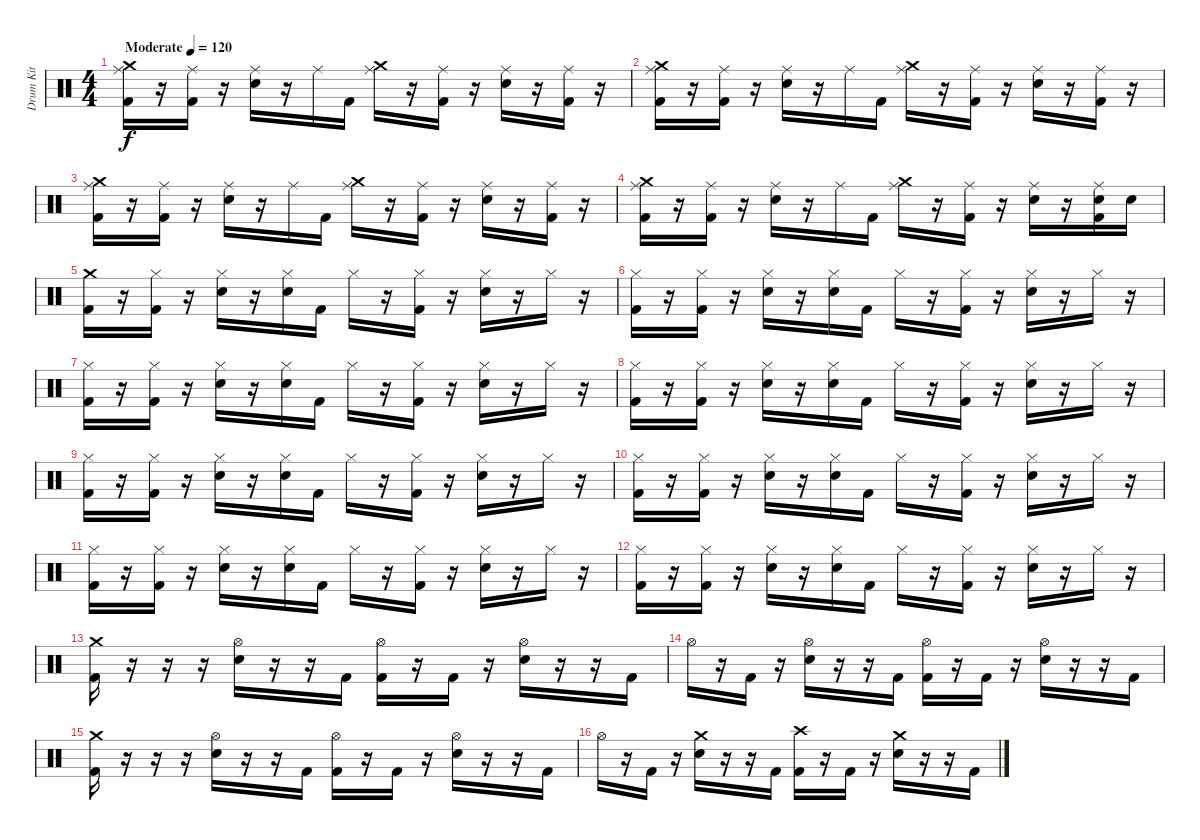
\track ("Drum Kit" "Drum Kit") {instrument percussion}
\staff {score}
\articulation defaults
\ts (4 4)
\tempo (120 "Moderate")
\clef neutral
\ks c
("Crash medium (hit)" "Ride (middle)" "Kick (hit) 2").16{dy f} r.16 ("Ride (middle)" "Kick (hit) 2").16 r.16 ("Ride (middle)" "Snare (hit) 2").16 r.16 "Ride (middle)".16 "Kick (hit) 2".16 ("Crash medium (hit)" "Ride (middle)").16 r.16 ("Ride (middle)" "Kick (hit) 2").16 r.16 ("Ride (middle)" "Snare (hit) 2").16 r.16 ("Ride (middle)" "Kick (hit) 2").16 r.16 |
("Crash medium (hit)" "Ride (middle)" "Kick (hit) 2").16 r.16 ("Ride (middle)" "Kick (hit) 2").16 r.16 ("Ride (middle)" "Snare (hit) 2").16 r.16 "Ride (middle)".16 "Kick (hit) 2".16 ("Crash medium (hit)" "Ride (middle)").16 r.16 ("Ride (middle)" "Kick (hit) 2").16 r.16 ("Ride (middle)" "Snare (hit) 2").16 r.16 ("Ride (middle)" "Kick (hit) 2").16 r.16 |
("Crash medium (hit)" "Ride (middle)" "Kick (hit) 2").16 r.16 ("Ride (middle)" "Kick (hit) 2").16 r.16 ("Ride (middle)" "Snare (hit) 2").16 r.16 "Ride (middle)".16 "Kick (hit) 2".16 ("Crash medium (hit)" "Ride (middle)").16 r.16 ("Ride (middle)" "Kick (hit) 2").16 r.16 ("Ride (middle)" "Snare (hit) 2").16 r.16 ("Ride (middle)" "Kick (hit) 2").16 r.16 |
("Crash medium (hit)" "Ride (middle)" "Kick (hit) 2").16 r.16 ("Ride (middle)" "Kick (hit) 2").16 r.16 ("Ride (middle)" "Snare (hit) 2").16 r.16 "Ride (middle)".16 "Kick (hit) 2".16 ("Crash medium (hit)" "Ride (middle)").16 r.16 ("Ride (middle)" "Kick (hit) 2").16 r.16 ("Ride (middle)" "Snare (hit) 2").16 r.16 ("Ride (middle)" "Snare (hit) 2" "Kick (hit) 2").16 "Snare (hit) 2".16 |
("Crash medium (hit)" "Kick (hit) 2").16 r.16 ("Hi-Hat (closed)" "Kick (hit) 2").16 r.16 ("Hi-Hat (closed)" "Snare (hit) 2").16 r.16 ("Hi-Hat (closed)" "Snare (hit) 2").16 "Kick (hit) 2".16 "Hi-Hat (closed)".16 r.16 ("Hi-Hat (closed)" "Kick (hit) 2").16 r.16 ("Hi-Hat (closed)" "Snare (hit) 2").16 r.16 "Hi-Hat (closed)".16 r.16 |
("Hi-Hat (closed)" "Kick (hit) 2").16 r.16 ("Hi-Hat (closed)" "Kick (hit) 2").16 r.16 ("Hi-Hat (closed)" "Snare (hit) 2").16 r.16 ("Hi-Hat (closed)" "Snare (hit) 2").16 "Kick (hit) 2".16 "Hi-Hat (closed)".16 r.16 ("Hi-Hat (closed)" "Kick (hit) 2").16 r.16 ("Hi-Hat (closed)" "Snare (hit) 2").16 r.16 "Hi-Hat (closed)".16 r.16 |
("Hi-Hat (closed)" "Kick (hit) 2").16 r.16 ("Hi-Hat (closed)" "Kick (hit) 2").16 r.16 ("Hi-Hat (closed)" "Snare (hit) 2").16 r.16 ("Hi-Hat (closed)" "Snare (hit) 2").16 "Kick (hit) 2".16 "Hi-Hat (closed)".16 r.16 ("Hi-Hat (closed)" "Kick (hit) 2").16 r.16 ("Hi-Hat (closed)" "Snare (hit) 2").16 r.16 "Hi-Hat (closed)".16 r.16 |
("Hi-Hat (closed)" "Kick (hit) 2").16 r.16 ("Hi-Hat (closed)" "Kick (hit) 2").16 r.16 ("Hi-Hat (closed)" "Snare (hit) 2").16 r.16 ("Hi-Hat (closed)" "Snare (hit) 2").16 "Kick (hit) 2".16 "Hi-Hat (closed)".16 r.16 ("Hi-Hat (closed)" "Kick (hit) 2").16 r.16 ("Hi-Hat (closed)" "Snare (hit) 2").16 r.16 "Hi-Hat (closed)".16 r.16 |
("Hi-Hat (closed)" "Kick (hit) 2").16 r.16 ("Hi-Hat (closed)" "Kick (hit) 2").16 r.16 ("Hi-Hat (closed)" "Snare (hit) 2").16 r.16 ("Hi-Hat (closed)" "Snare (hit) 2").16 "Kick (hit) 2".16 "Hi-Hat (closed)".16 r.16 ("Hi-Hat (closed)" "Kick (hit) 2").16 r.16 ("Hi-Hat (closed)" "Snare (hit) 2").16 r.16 "Hi-Hat (closed)".16 r.16 |
("Hi-Hat (closed)" "Kick (hit) 2").16 r.16 ("Hi-Hat (closed)" "Kick (hit) 2").16 r.16 ("Hi-Hat (closed)" "Snare (hit) 2").16 r.16 ("Hi-Hat (closed)" "Snare (hit) 2").16 "Kick (hit) 2".16 "Hi-Hat (closed)".16 r.16 ("Hi-Hat (closed)" "Kick (hit) 2").16 r.16 ("Hi-Hat (closed)" "Snare (hit) 2").16 r.16 "Hi-Hat (closed)".16 r.16 |
("Hi-Hat (closed)" "Kick (hit) 2").16 r.16 ("Hi-Hat (closed)" "Kick (hit) 2").16 r.16 ("Hi-Hat (closed)" "Snare (hit) 2").16 r.16 ("Hi-Hat (closed)" "Snare (hit) 2").16 "Kick (hit) 2".16 "Hi-Hat (closed)".16 r.16 ("Hi-Hat (closed)" "Kick (hit) 2").16 r.16 ("Hi-Hat (closed)" "Snare (hit) 2").16 r.16 "Hi-Hat (closed)".16 r.16 |
("Hi-Hat (closed)" "Kick (hit) 2").16 r.16 ("Hi-Hat (closed)" "Kick (hit) 2").16 r.16 ("Hi-Hat (closed)" "Snare (hit) 2").16 r.16 ("Hi-Hat (closed)" "Snare (hit) 2").16 "Kick (hit) 2".16 "Hi-Hat (closed)".16 r.16 ("Hi-Hat (closed)" "Kick (hit) 2").16 r.16 ("Hi-Hat (closed)" "Snare (hit) 2").16 r.16 "Hi-Hat (closed)".16 r.16 |
("Crash medium (hit)" "Kick (hit) 2").16 r.16 r.16 r.16 ("Hi-Hat (open)" "Snare (hit) 2").16 r.16 r.16 "Kick (hit) 2".16 ("Hi-Hat (open)" "Kick (hit) 2").16 r.16 "Kick (hit) 2".16 r.16 ("Hi-Hat (open)" "Snare (hit) 2").16 r.16 r.16 "Kick (hit) 2".16 |
"Hi-Hat (open)".16 r.16 "Kick (hit) 2".16 r.16 ("Hi-Hat (open)" "Snare (hit) 2").16 r.16 r.16 "Kick (hit) 2".16 ("Hi-Hat (open)" "Kick (hit) 2").16 r.16 "Kick (hit) 2".16 r.16 ("Hi-Hat (open)" "Snare (hit) 2").16 r.16 r.16 "Kick (hit) 2".16 |
("Crash medium (hit)" "Kick (hit) 2").16 r.16 r.16 r.16 ("Hi-Hat (open)" "Snare (hit) 2").16 r.16 r.16 "Kick (hit) 2".16 ("Hi-Hat (open)" "Kick (hit) 2").16 r.16 "Kick (hit) 2".16 r.16 ("Hi-Hat (open)" "Snare (hit) 2").16 r.16 r.16 "Kick (hit) 2".16 |
"Hi-Hat (open)".16 r.16 "Kick (hit) 2".16 r.16 ("Crash medium (hit)" "Snare (hit) 2").16 r.16 r.16 "Kick (hit) 2".16 ("Crash high (hit)" "Kick (hit) 2").16 r.16 "Kick (hit) 2".16 r.16 ("Crash medium (hit)" "Snare (hit) 2").16 r.16 r.16 "Kick (hit) 2".16
